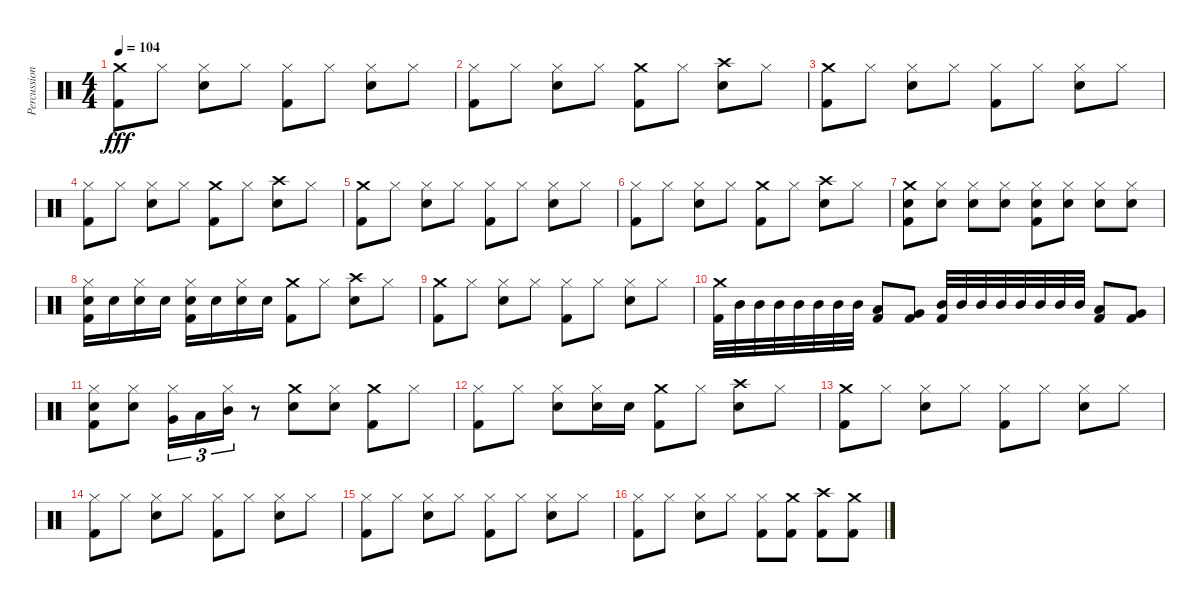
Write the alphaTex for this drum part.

\track ("Percussions" "Percussion") {instrument percussion}
\staff {score}
\articulation defaults
\ts (4 4)
\tempo 104
\clef neutral
\ks c
("Kick (hit) 2" "Crash medium (hit)").8{dy fff} "Hi-Hat (closed)".8 ("Snare (hit) 2" "Hi-Hat (closed)").8 "Hi-Hat (closed)".8 ("Hi-Hat (closed)" "Kick (hit) 2").8 "Hi-Hat (closed)".8 ("Hi-Hat (closed)" "Snare (hit) 2").8 "Hi-Hat (closed)".8 |
("Kick (hit) 2" "Hi-Hat (closed)").8 "Hi-Hat (closed)".8 ("Snare (hit) 2" "Hi-Hat (closed)").8 "Hi-Hat (closed)".8 ("Crash medium (hit)" "Kick (hit) 2").8 "Hi-Hat (closed)".8 ("Crash high (hit)" "Snare (hit) 2").8 "Hi-Hat (closed)".8 |
("Kick (hit) 2" "Crash medium (hit)").8 "Hi-Hat (closed)".8 ("Snare (hit) 2" "Hi-Hat (closed)").8 "Hi-Hat (closed)".8 ("Hi-Hat (closed)" "Kick (hit) 2").8 "Hi-Hat (closed)".8 ("Hi-Hat (closed)" "Snare (hit) 2").8 "Hi-Hat (closed)".8 |
("Kick (hit) 2" "Hi-Hat (closed)").8 "Hi-Hat (closed)".8 ("Snare (hit) 2" "Hi-Hat (closed)").8 "Hi-Hat (closed)".8 ("Crash medium (hit)" "Kick (hit) 2").8 "Hi-Hat (closed)".8 ("Crash high (hit)" "Snare (hit) 2").8 "Hi-Hat (closed)".8 |
("Kick (hit) 2" "Crash medium (hit)").8 "Hi-Hat (closed)".8 ("Snare (hit) 2" "Hi-Hat (closed)").8 "Hi-Hat (closed)".8 ("Hi-Hat (closed)" "Kick (hit) 2").8 "Hi-Hat (closed)".8 ("Hi-Hat (closed)" "Snare (hit) 2").8 "Hi-Hat (closed)".8 |
("Kick (hit) 2" "Hi-Hat (closed)").8 "Hi-Hat (closed)".8 ("Snare (hit) 2" "Hi-Hat (closed)").8 "Hi-Hat (closed)".8 ("Crash medium (hit)" "Kick (hit) 2").8 "Hi-Hat (closed)".8 ("Crash high (hit)" "Snare (hit) 2").8 "Hi-Hat (closed)".8 |
("Kick (hit) 2" "Crash medium (hit)" "Snare (hit) 2").8 ("Snare (hit) 2" "Hi-Hat (closed)").8 ("Snare (hit) 2" "Hi-Hat (closed)").8 ("Snare (hit) 2" "Hi-Hat (closed)").8 ("Hi-Hat (closed)" "Snare (hit) 2" "Kick (hit) 2").8 ("Hi-Hat (closed)" "Snare (hit) 2").8 ("Hi-Hat (closed)" "Snare (hit) 2").8 ("Hi-Hat (closed)" "Snare (hit) 2").8 |
("Kick (hit) 2" "Hi-Hat (closed)" "Snare (hit) 2").16 "Snare (hit) 2".16 ("Snare (hit) 2" "Hi-Hat (closed)").16 "Snare (hit) 2".16 ("Hi-Hat (closed)" "Snare (hit) 2" "Kick (hit) 2").16 "Snare (hit) 2".16 ("Hi-Hat (closed)" "Snare (hit) 2").16 "Snare (hit) 2".16 ("Crash medium (hit)" "Kick (hit) 2").8 "Hi-Hat (closed)".8 ("Crash high (hit)" "Snare (hit) 2").8 "Hi-Hat (closed)".8 |
("Kick (hit) 2" "Crash medium (hit)").8 "Hi-Hat (closed)".8 ("Snare (hit) 2" "Hi-Hat (closed)").8 "Hi-Hat (closed)".8 ("Hi-Hat (closed)" "Kick (hit) 2").8 "Hi-Hat (closed)".8 ("Hi-Hat (closed)" "Snare (hit) 2").8 "Hi-Hat (closed)".8 |
("Crash medium (hit)" "Kick (hit) 2").32 "Mid Tom (hit)".32 "Mid Tom (hit)".32 "Mid Tom (hit)".32 "Mid Tom (hit)".32 "Mid Tom (hit)".32 "Mid Tom (hit)".32 "Mid Tom (hit)".32 ("Low Tom (hit)" "Kick (hit) 2").8 ("Very Low Tom (hit)" "Kick (hit) 2").8 ("Mid Tom (hit)" "Kick (hit) 2").32 "Mid Tom (hit)".32 "Mid Tom (hit)".32 "Mid Tom (hit)".32 "Mid Tom (hit)".32 "Mid Tom (hit)".32 "Mid Tom (hit)".32 "Mid Tom (hit)".32 ("Low Tom (hit)" "Kick (hit) 2").8 ("Very Low Tom (hit)" "Kick (hit) 2").8 |
("Kick (hit) 2" "Hi-Hat (closed)" "Snare (hit) 2").8 ("Snare (hit) 2" "Hi-Hat (closed)").8 ("Very Low Tom (hit)" "Hi-Hat (closed)").16{tu (3 2)} "Low Tom (hit)".16{tu (3 2)} ("Mid Tom (hit)" "Hi-Hat (closed)").16{tu (3 2)} r.8 ("Snare (hit) 2" "Crash medium (hit)").8 ("Snare (hit) 2" "Hi-Hat (closed)").8 ("Crash medium (hit)" "Kick (hit) 2").8 "Hi-Hat (closed)".8 |
("Kick (hit) 2" "Hi-Hat (closed)").8 "Hi-Hat (closed)".8 ("Snare (hit) 2" "Hi-Hat (closed)").8 ("Hi-Hat (closed)" "Snare (hit) 2").16 "Snare (hit) 2".16 ("Crash medium (hit)" "Kick (hit) 2").8 "Hi-Hat (closed)".8 ("Crash high (hit)" "Snare (hit) 2").8 "Hi-Hat (closed)".8 |
("Kick (hit) 2" "Crash medium (hit)").8 "Hi-Hat (closed)".8 ("Snare (hit) 2" "Hi-Hat (closed)").8 "Hi-Hat (closed)".8 ("Hi-Hat (closed)" "Kick (hit) 2").8 "Hi-Hat (closed)".8 ("Hi-Hat (closed)" "Snare (hit) 2").8 "Hi-Hat (closed)".8 |
("Kick (hit) 2" "Hi-Hat (closed)").8 "Hi-Hat (closed)".8 ("Snare (hit) 2" "Hi-Hat (closed)").8 "Hi-Hat (closed)".8 ("Hi-Hat (closed)" "Kick (hit) 2").8 "Hi-Hat (closed)".8 ("Hi-Hat (closed)" "Snare (hit) 2").8 "Hi-Hat (closed)".8 |
("Kick (hit) 2" "Hi-Hat (closed)").8 "Hi-Hat (closed)".8 ("Snare (hit) 2" "Hi-Hat (closed)").8 "Hi-Hat (closed)".8 ("Hi-Hat (closed)" "Kick (hit) 2").8 "Hi-Hat (closed)".8 ("Hi-Hat (closed)" "Snare (hit) 2").8 "Hi-Hat (closed)".8 |
("Kick (hit) 2" "Hi-Hat (closed)").8 "Hi-Hat (closed)".8 ("Snare (hit) 2" "Hi-Hat (closed)").8 "Hi-Hat (closed)".8 ("Hi-Hat (closed)" "Kick (hit) 2").8 ("Crash medium (hit)" "Kick (hit) 2").8 ("Crash high (hit)" "Kick (hit) 2").8 ("Crash medium (hit)" "Kick (hit) 2").8
